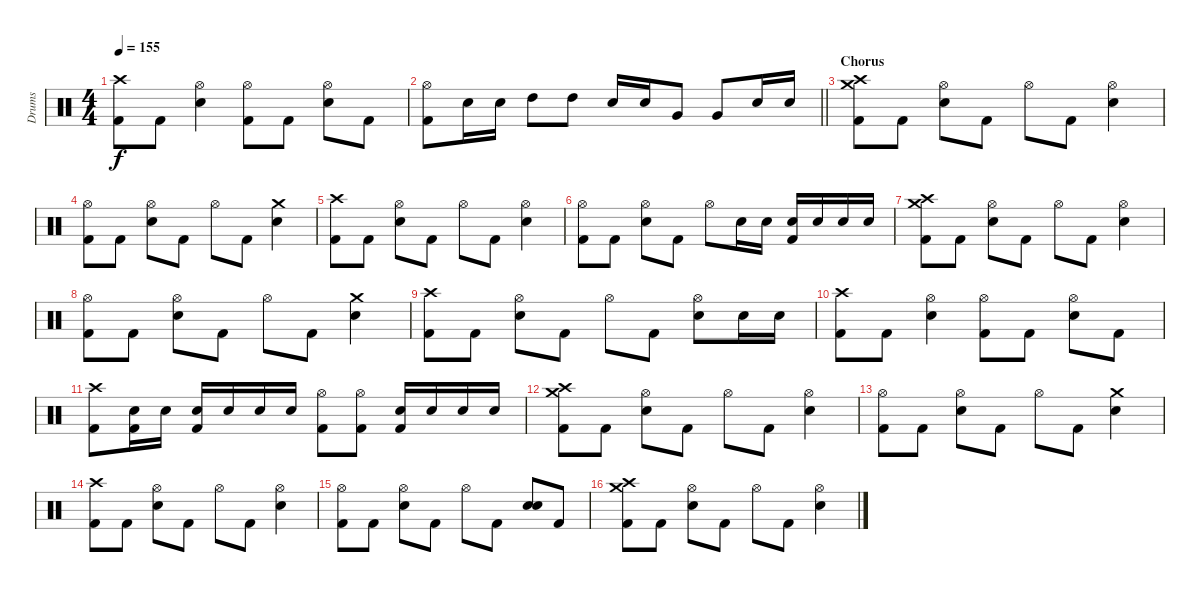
\track ("Drums" "Drums") {instrument percussion}
\staff {score}
\articulation defaults
\ts (4 4)
\tempo 155
\clef neutral
\ks c
("Kick (hit) 2" "Crash high (hit)").8{dy f} "Kick (hit) 2".8 ("Electric Snare (hit)" "Hi-Hat (open)").4 ("Kick (hit) 2" "Hi-Hat (open)").8 "Kick (hit) 2".8 ("Electric Snare (hit)" "Hi-Hat (open)").8 "Kick (hit) 2".8 |
\barLineRight lightlight
("Kick (hit) 2" "Hi-Hat (open)").8 "Electric Snare (hit)".16 "Electric Snare (hit)".16 "High Tom (hit)".8 "High Tom (hit)".8 "Electric Snare (hit)".16 "Electric Snare (hit)".16 "Very Low Tom (hit)".8 "Very Low Tom (hit)".8 "Electric Snare (hit)".16 "Electric Snare (hit)".16 |
\section ("" "Chorus")
("Kick (hit) 2" "Crash medium (hit)" "Crash high (hit)").8 "Kick (hit) 2".8 ("Electric Snare (hit)" "Hi-Hat (open)").8 "Kick (hit) 2".8 "Hi-Hat (open)".8 "Kick (hit) 2".8 ("Electric Snare (hit)" "Hi-Hat (open)").4 |
("Kick (hit) 2" "Hi-Hat (open)").8 "Kick (hit) 2".8 ("Electric Snare (hit)" "Hi-Hat (open)").8 "Kick (hit) 2".8 "Hi-Hat (open)".8 "Kick (hit) 2".8 ("Electric Snare (hit)" "Crash medium (hit)").4 |
("Kick (hit) 2" "Crash high (hit)").8 "Kick (hit) 2".8 ("Electric Snare (hit)" "Hi-Hat (open)").8 "Kick (hit) 2".8 "Hi-Hat (open)".8 "Kick (hit) 2".8 ("Electric Snare (hit)" "Hi-Hat (open)").4 |
("Kick (hit) 2" "Hi-Hat (open)").8 "Kick (hit) 2".8 ("Electric Snare (hit)" "Hi-Hat (open)").8 "Kick (hit) 2".8 "Hi-Hat (open)".8 "Electric Snare (hit)".16 "Electric Snare (hit)".16 ("Kick (hit) 2" "Electric Snare (hit)").16 "Electric Snare (hit)".16 "Electric Snare (hit)".16 "Electric Snare (hit)".16 |
("Kick (hit) 2" "Crash medium (hit)" "Crash high (hit)").8 "Kick (hit) 2".8 ("Electric Snare (hit)" "Hi-Hat (open)").8 "Kick (hit) 2".8 "Hi-Hat (open)".8 "Kick (hit) 2".8 ("Electric Snare (hit)" "Hi-Hat (open)").4 |
("Kick (hit) 2" "Hi-Hat (open)").8 "Kick (hit) 2".8 ("Electric Snare (hit)" "Hi-Hat (open)").8 "Kick (hit) 2".8 "Hi-Hat (open)".8 "Kick (hit) 2".8 ("Electric Snare (hit)" "Crash medium (hit)").4 |
("Kick (hit) 2" "Crash high (hit)").8 "Kick (hit) 2".8 ("Electric Snare (hit)" "Hi-Hat (open)").8 "Kick (hit) 2".8 "Hi-Hat (open)".8 "Kick (hit) 2".8 ("Electric Snare (hit)" "Hi-Hat (open)").8 "Electric Snare (hit)".16 "Electric Snare (hit)".16 |
("Kick (hit) 2" "Crash high (hit)").8 "Kick (hit) 2".8 ("Electric Snare (hit)" "Hi-Hat (open)").4 ("Kick (hit) 2" "Hi-Hat (open)").8 "Kick (hit) 2".8 ("Electric Snare (hit)" "Hi-Hat (open)").8 "Kick (hit) 2".8 |
("Kick (hit) 2" "Crash high (hit)").8 ("Kick (hit) 2" "Electric Snare (hit)").16 "Electric Snare (hit)".16 ("Kick (hit) 2" "Electric Snare (hit)").16 "Electric Snare (hit)".16 "Electric Snare (hit)".16 "Electric Snare (hit)".16 ("Kick (hit) 2" "Hi-Hat (open)").8 ("Kick (hit) 2" "Hi-Hat (open)").8 ("Kick (hit) 2" "Electric Snare (hit)").16 "Electric Snare (hit)".16 "Electric Snare (hit)".16 "Electric Snare (hit)".16 |
("Kick (hit) 2" "Crash medium (hit)" "Crash high (hit)").8 "Kick (hit) 2".8 ("Electric Snare (hit)" "Hi-Hat (open)").8 "Kick (hit) 2".8 "Hi-Hat (open)".8 "Kick (hit) 2".8 ("Electric Snare (hit)" "Hi-Hat (open)").4 |
("Kick (hit) 2" "Hi-Hat (open)").8 "Kick (hit) 2".8 ("Electric Snare (hit)" "Hi-Hat (open)").8 "Kick (hit) 2".8 "Hi-Hat (open)".8 "Kick (hit) 2".8 ("Electric Snare (hit)" "Crash medium (hit)").4 |
("Kick (hit) 2" "Crash high (hit)").8 "Kick (hit) 2".8 ("Electric Snare (hit)" "Hi-Hat (open)").8 "Kick (hit) 2".8 "Hi-Hat (open)".8 "Kick (hit) 2".8 ("Electric Snare (hit)" "Hi-Hat (open)").4 |
("Kick (hit) 2" "Hi-Hat (open)").8 "Kick (hit) 2".8 ("Electric Snare (hit)" "Hi-Hat (open)").8 "Kick (hit) 2".8 "Hi-Hat (open)".8 "Kick (hit) 2".8 ("Electric Snare (hit)" "Electric Snare (hit)").8 "Kick (hit) 2".8 |
("Kick (hit) 2" "Crash medium (hit)" "Crash high (hit)").8 "Kick (hit) 2".8 ("Electric Snare (hit)" "Hi-Hat (open)").8 "Kick (hit) 2".8 "Hi-Hat (open)".8 "Kick (hit) 2".8 ("Electric Snare (hit)" "Hi-Hat (open)").4
